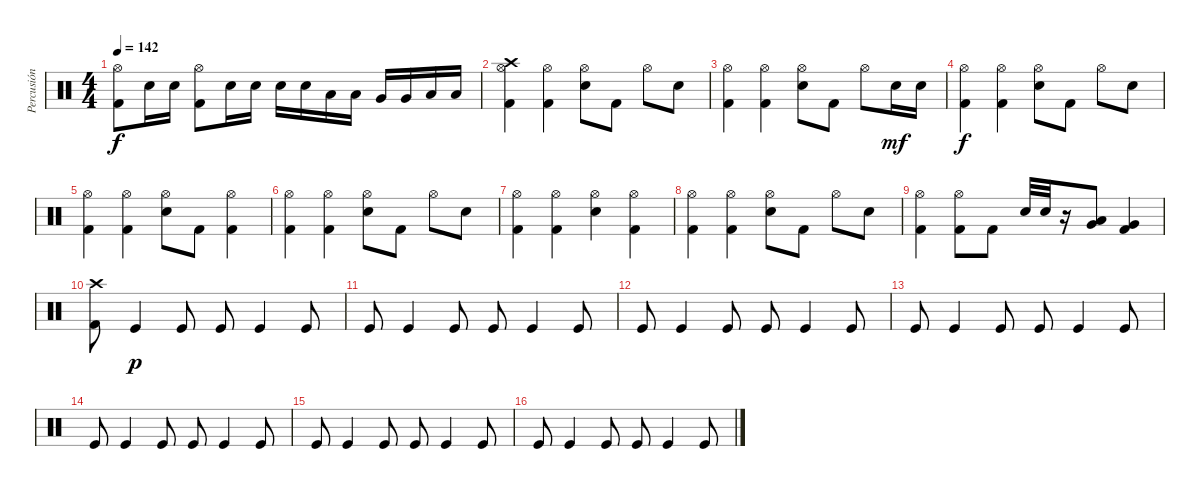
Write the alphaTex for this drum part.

\track ("Percusión" "Percusión") {instrument percussion}
\staff {score}
\articulation defaults
\ts (4 4)
\tempo 142
\clef neutral
\ks c
("Hi-Hat (open)" "Kick (hit) 2").8{dy f} "Snare (hit) 2".16 "Snare (hit) 2".16 ("Hi-Hat (open)" "Kick (hit) 2").8 "Snare (hit) 2".16 "Snare (hit) 2".16 "Snare (hit) 2".16 "Snare (hit) 2".16 "Low Tom (hit)".16 "Low Tom (hit)".16 "Very Low Tom (hit)".16 "Very Low Tom (hit)".16 "Low Floor Tom (hit)".16 "Low Floor Tom (hit)".16 |
("Crash high (hit)" "Hi-Hat (open)" "Kick (hit) 2").4 ("Hi-Hat (open)" "Kick (hit) 2").4 ("Hi-Hat (open)" "Snare (hit) 2").8 "Kick (hit) 2".8 "Hi-Hat (open)".8 "Snare (hit) 2".8 |
("Hi-Hat (open)" "Kick (hit) 2").4 ("Hi-Hat (open)" "Kick (hit) 2").4 ("Hi-Hat (open)" "Snare (hit) 2").8 "Kick (hit) 2".8 "Hi-Hat (open)".8 "Snare (hit) 2".16{dy mf} "Snare (hit) 2".16 |
("Hi-Hat (open)" "Kick (hit) 2").4{dy f} ("Hi-Hat (open)" "Kick (hit) 2").4 ("Hi-Hat (open)" "Snare (hit) 2").8 "Kick (hit) 2".8 "Hi-Hat (open)".8 "Snare (hit) 2".8 |
("Hi-Hat (open)" "Kick (hit) 2").4 ("Hi-Hat (open)" "Kick (hit) 2").4 ("Hi-Hat (open)" "Snare (hit) 2").8 "Kick (hit) 2".8 ("Hi-Hat (open)" "Kick (hit) 2").4 |
("Hi-Hat (open)" "Kick (hit) 2").4 ("Hi-Hat (open)" "Kick (hit) 2").4 ("Hi-Hat (open)" "Snare (hit) 2").8 "Kick (hit) 2".8 "Hi-Hat (open)".8 "Snare (hit) 2".8 |
("Hi-Hat (open)" "Kick (hit) 2").4 ("Hi-Hat (open)" "Kick (hit) 2").4 ("Hi-Hat (open)" "Snare (hit) 2").4 ("Hi-Hat (open)" "Kick (hit) 2").4 |
("Hi-Hat (open)" "Kick (hit) 2").4 ("Hi-Hat (open)" "Kick (hit) 2").4 ("Hi-Hat (open)" "Snare (hit) 2").8 "Kick (hit) 2".8 "Hi-Hat (open)".8 "Snare (hit) 2".8 |
("Hi-Hat (open)" "Kick (hit) 2").4 ("Hi-Hat (open)" "Kick (hit) 2").8 "Kick (hit) 2".8 "Snare (hit) 2".32 "Snare (hit) 2".32 r.16 ("Very Low Tom (hit)" "Low Floor Tom (hit)").8 ("Very Low Tom (hit)" "Kick (hit) 2").4 |
("Crash high (hit)" "Kick (hit) 2").8 "Kick (hit)".4{dy p} "Kick (hit)".8 "Kick (hit)".8 "Kick (hit)".4 "Kick (hit)".8 |
"Kick (hit)".8 "Kick (hit)".4 "Kick (hit)".8 "Kick (hit)".8 "Kick (hit)".4 "Kick (hit)".8 |
"Kick (hit)".8 "Kick (hit)".4 "Kick (hit)".8 "Kick (hit)".8 "Kick (hit)".4 "Kick (hit)".8 |
"Kick (hit)".8 "Kick (hit)".4 "Kick (hit)".8 "Kick (hit)".8 "Kick (hit)".4 "Kick (hit)".8 |
"Kick (hit)".8 "Kick (hit)".4 "Kick (hit)".8 "Kick (hit)".8 "Kick (hit)".4 "Kick (hit)".8 |
"Kick (hit)".8 "Kick (hit)".4 "Kick (hit)".8 "Kick (hit)".8 "Kick (hit)".4 "Kick (hit)".8 |
"Kick (hit)".8 "Kick (hit)".4 "Kick (hit)".8 "Kick (hit)".8 "Kick (hit)".4 "Kick (hit)".8
